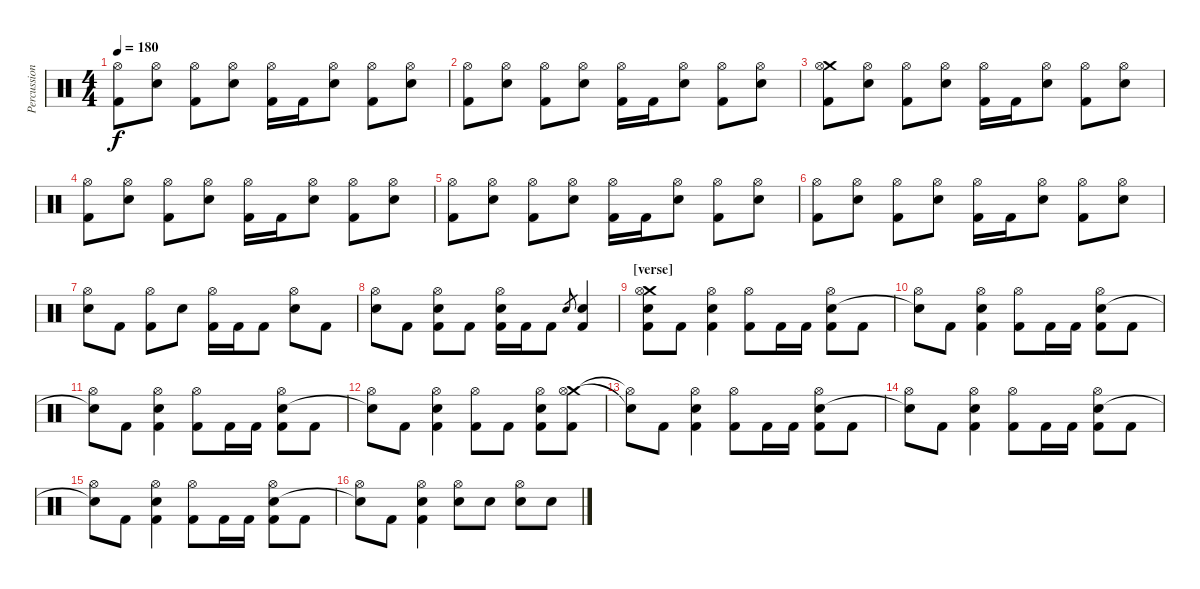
\track ("Percussion" "Percussion") {instrument percussion}
\staff {score}
\articulation defaults
\ts (4 4)
\tempo 180
\clef neutral
\ks c
("Hi-Hat (open)" "Kick (hit) 2").8{dy f} ("Hi-Hat (open)" "Electric Snare (hit)").8 ("Hi-Hat (open)" "Kick (hit) 2").8 ("Hi-Hat (open)" "Electric Snare (hit)").8 ("Hi-Hat (open)" "Kick (hit) 2").16 "Kick (hit) 2".16 ("Hi-Hat (open)" "Electric Snare (hit)").8 ("Hi-Hat (open)" "Kick (hit) 2").8 ("Hi-Hat (open)" "Electric Snare (hit)").8 |
("Hi-Hat (open)" "Kick (hit) 2").8 ("Hi-Hat (open)" "Electric Snare (hit)").8 ("Hi-Hat (open)" "Kick (hit) 2").8 ("Hi-Hat (open)" "Electric Snare (hit)").8 ("Hi-Hat (open)" "Kick (hit) 2").16 "Kick (hit) 2".16 ("Hi-Hat (open)" "Electric Snare (hit)").8 ("Hi-Hat (open)" "Kick (hit) 2").8 ("Hi-Hat (open)" "Electric Snare (hit)").8 |
("Crash medium (hit)" "Hi-Hat (open)" "Kick (hit) 2").8 ("Hi-Hat (open)" "Electric Snare (hit)").8 ("Hi-Hat (open)" "Kick (hit) 2").8 ("Hi-Hat (open)" "Electric Snare (hit)").8 ("Hi-Hat (open)" "Kick (hit) 2").16 "Kick (hit) 2".16 ("Hi-Hat (open)" "Electric Snare (hit)").8 ("Hi-Hat (open)" "Kick (hit) 2").8 ("Hi-Hat (open)" "Electric Snare (hit)").8 |
("Hi-Hat (open)" "Kick (hit) 2").8 ("Hi-Hat (open)" "Electric Snare (hit)").8 ("Hi-Hat (open)" "Kick (hit) 2").8 ("Hi-Hat (open)" "Electric Snare (hit)").8 ("Hi-Hat (open)" "Kick (hit) 2").16 "Kick (hit) 2".16 ("Hi-Hat (open)" "Electric Snare (hit)").8 ("Hi-Hat (open)" "Kick (hit) 2").8 ("Hi-Hat (open)" "Electric Snare (hit)").8 |
("Hi-Hat (open)" "Kick (hit) 2").8 ("Hi-Hat (open)" "Electric Snare (hit)").8 ("Hi-Hat (open)" "Kick (hit) 2").8 ("Hi-Hat (open)" "Electric Snare (hit)").8 ("Hi-Hat (open)" "Kick (hit) 2").16 "Kick (hit) 2".16 ("Hi-Hat (open)" "Electric Snare (hit)").8 ("Hi-Hat (open)" "Kick (hit) 2").8 ("Hi-Hat (open)" "Electric Snare (hit)").8 |
("Hi-Hat (open)" "Kick (hit) 2").8 ("Hi-Hat (open)" "Electric Snare (hit)").8 ("Hi-Hat (open)" "Kick (hit) 2").8 ("Hi-Hat (open)" "Electric Snare (hit)").8 ("Hi-Hat (open)" "Kick (hit) 2").16 "Kick (hit) 2".16 ("Hi-Hat (open)" "Electric Snare (hit)").8 ("Hi-Hat (open)" "Kick (hit) 2").8 ("Hi-Hat (open)" "Electric Snare (hit)").8 |
("Hi-Hat (open)" "Electric Snare (hit)").8 "Kick (hit) 2".8 ("Hi-Hat (open)" "Kick (hit) 2").8 "Electric Snare (hit)".8 ("Hi-Hat (open)" "Kick (hit) 2").16 "Kick (hit) 2".16 "Kick (hit) 2".8 ("Hi-Hat (open)" "Electric Snare (hit)").8 "Kick (hit) 2".8 |
("Hi-Hat (open)" "Electric Snare (hit)").8 "Kick (hit) 2".8 ("Hi-Hat (open)" "Electric Snare (hit)" "Kick (hit) 2").8 "Kick (hit) 2".8 ("Hi-Hat (open)" "Electric Snare (hit)" "Kick (hit) 2").16 "Kick (hit) 2".16 "Kick (hit) 2".8 "Electric Snare (hit)".8{gr} ("Electric Snare (hit)" "Kick (hit) 2").4 |
\section ("" "[verse]")
("Crash medium (hit)" "Hi-Hat (open)" "Electric Snare (hit)" "Kick (hit) 2").8 "Kick (hit) 2".8 ("Hi-Hat (open)" "Electric Snare (hit)" "Kick (hit) 2").4 ("Hi-Hat (open)" "Kick (hit) 2").8 "Kick (hit) 2".16 "Kick (hit) 2".16 ("Hi-Hat (open)" "Electric Snare (hit)" "Kick (hit) 2").8 "Kick (hit) 2".8 |
("Hi-Hat (open)" "Snare (hit)"{t}).8 "Kick (hit) 2".8 ("Hi-Hat (open)" "Electric Snare (hit)" "Kick (hit) 2").4 ("Hi-Hat (open)" "Kick (hit) 2").8 "Kick (hit) 2".16 "Kick (hit) 2".16 ("Hi-Hat (open)" "Electric Snare (hit)" "Kick (hit) 2").8 "Kick (hit) 2".8 |
("Hi-Hat (open)" "Snare (hit)"{t}).8 "Kick (hit) 2".8 ("Hi-Hat (open)" "Electric Snare (hit)" "Kick (hit) 2").4 ("Hi-Hat (open)" "Kick (hit) 2").8 "Kick (hit) 2".16 "Kick (hit) 2".16 ("Hi-Hat (open)" "Electric Snare (hit)" "Kick (hit) 2").8 "Kick (hit) 2".8 |
("Hi-Hat (open)" "Snare (hit)"{t}).8 "Kick (hit) 2".8 ("Hi-Hat (open)" "Electric Snare (hit)" "Kick (hit) 2").4 ("Hi-Hat (open)" "Kick (hit) 2").8 "Kick (hit) 2".8 ("Hi-Hat (open)" "Electric Snare (hit)" "Kick (hit) 2").8 ("Crash medium (hit)" "Hi-Hat (open)" "Kick (hit) 2").8 |
("Hi-Hat (open)"{t} "Snare (hit)"{t}).8 "Kick (hit) 2".8 ("Hi-Hat (open)" "Electric Snare (hit)" "Kick (hit) 2").4 ("Hi-Hat (open)" "Kick (hit) 2").8 "Kick (hit) 2".16 "Kick (hit) 2".16 ("Hi-Hat (open)" "Electric Snare (hit)" "Kick (hit) 2").8 "Kick (hit) 2".8 |
("Hi-Hat (open)" "Snare (hit)"{t}).8 "Kick (hit) 2".8 ("Hi-Hat (open)" "Electric Snare (hit)" "Kick (hit) 2").4 ("Hi-Hat (open)" "Kick (hit) 2").8 "Kick (hit) 2".16 "Kick (hit) 2".16 ("Hi-Hat (open)" "Electric Snare (hit)" "Kick (hit) 2").8 "Kick (hit) 2".8 |
("Hi-Hat (open)" "Snare (hit)"{t}).8 "Kick (hit) 2".8 ("Hi-Hat (open)" "Electric Snare (hit)" "Kick (hit) 2").4 ("Hi-Hat (open)" "Kick (hit) 2").8 "Kick (hit) 2".16 "Kick (hit) 2".16 ("Hi-Hat (open)" "Electric Snare (hit)" "Kick (hit) 2").8 "Kick (hit) 2".8 |
("Hi-Hat (open)" "Snare (hit)"{t}).8 "Kick (hit) 2".8 ("Hi-Hat (open)" "Electric Snare (hit)" "Kick (hit) 2").4 ("Hi-Hat (open)" "Electric Snare (hit)").8 "Electric Snare (hit)".8 ("Hi-Hat (open)" "Electric Snare (hit)").8 "Electric Snare (hit)".8
